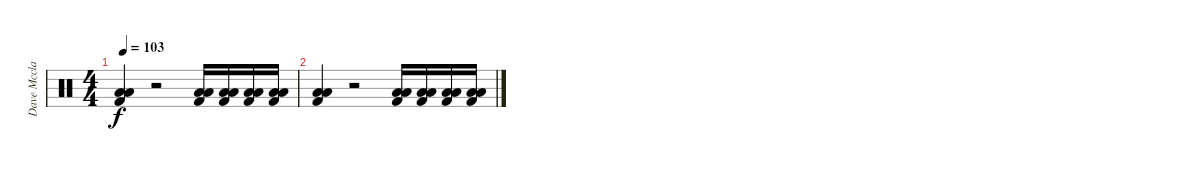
\track ("Dave Mcclain" "Dave Mccla") {instrument percussion}
\staff {score}
\articulation defaults
\ts (4 4)
\tempo 103
\clef neutral
\ks c
("Low Tom (hit)" "Low Floor Tom (hit)" "Kick (hit) 2").4{dy f} r.2 ("Low Tom (hit)" "Low Floor Tom (hit)" "Kick (hit) 2").16 ("Low Tom (hit)" "Low Floor Tom (hit)" "Kick (hit) 2").16 ("Low Tom (hit)" "Low Floor Tom (hit)" "Kick (hit) 2").16 ("Low Tom (hit)" "Low Floor Tom (hit)" "Kick (hit) 2").16 |
("Low Tom (hit)" "Low Floor Tom (hit)" "Kick (hit) 2").4 r.2 ("Low Tom (hit)" "Low Floor Tom (hit)" "Kick (hit) 2").16 ("Low Tom (hit)" "Low Floor Tom (hit)" "Kick (hit) 2").16 ("Low Tom (hit)" "Low Floor Tom (hit)" "Kick (hit) 2").16 ("Low Tom (hit)" "Low Floor Tom (hit)" "Kick (hit) 2").16
